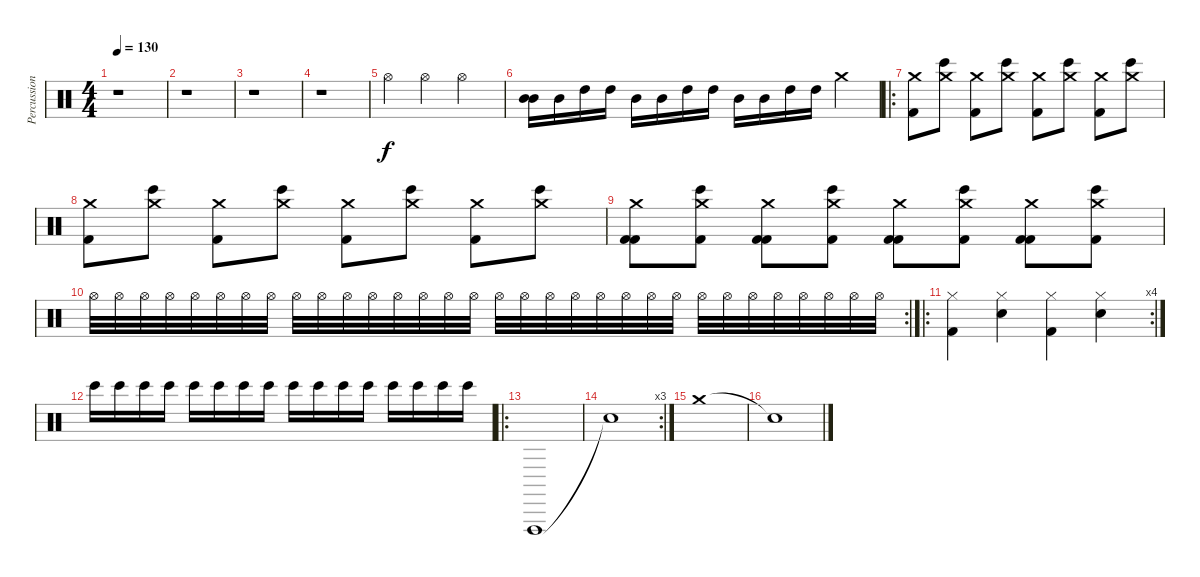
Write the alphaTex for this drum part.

\track ("Percussion" "Percussion") {instrument percussion}
\staff {score}
\articulation defaults
\ts (4 4)
\tempo 130
\clef neutral
\ks c
r.1{dy f} |
r.1 |
r.1 |
r.1 |
"Hi-Hat (open)".4 "Hi-Hat (open)".4 "Hi-Hat (open)".2 |
("Mid Tom (hit)" "Mid Tom (hit)").16 "Mid Tom (hit)".16 "High Tom (hit)".16 "High Tom (hit)".16 "Mid Tom (hit)".16 "Mid Tom (hit)".16 "High Tom (hit)".16 "High Tom (hit)".16 "Mid Tom (hit)".16 "Mid Tom (hit)".16 "High Tom (hit)".16 "High Tom (hit)".16 "Crash medium (hit)".4 |
\ro
("Crash medium (hit)" "Kick (hit) 2").8 ("Crash medium (hit)" "Bongo High (hit)").8 ("Crash medium (hit)" "Kick (hit) 2").8 ("Crash medium (hit)" "Bongo High (hit)").8 ("Crash medium (hit)" "Kick (hit) 2").8 ("Crash medium (hit)" "Bongo High (hit)").8 ("Crash medium (hit)" "Kick (hit) 2").8 ("Crash medium (hit)" "Bongo High (hit)").8 |
("Crash medium (hit)" "Kick (hit) 2").8 ("Crash medium (hit)" "Bongo High (hit)").8 ("Crash medium (hit)" "Kick (hit) 2").8 ("Crash medium (hit)" "Bongo High (hit)").8 ("Crash medium (hit)" "Kick (hit) 2").8 ("Crash medium (hit)" "Bongo High (hit)").8 ("Crash medium (hit)" "Kick (hit) 2").8 ("Crash medium (hit)" "Bongo High (hit)").8 |
("Crash medium (hit)" "Kick (hit) 2" "Kick (hit) 2").8 ("Crash medium (hit)" "Bongo High (hit)" "Kick (hit) 2").8 ("Crash medium (hit)" "Kick (hit) 2" "Kick (hit) 2").8 ("Crash medium (hit)" "Bongo High (hit)" "Kick (hit) 2").8 ("Crash medium (hit)" "Kick (hit) 2" "Kick (hit) 2").8 ("Crash medium (hit)" "Bongo High (hit)" "Kick (hit) 2").8 ("Crash medium (hit)" "Kick (hit) 2" "Kick (hit) 2").8 ("Crash medium (hit)" "Bongo High (hit)" "Kick (hit) 2").8 |
\rc 2 "Hi-Hat (open)".32 "Hi-Hat (open)".32 "Hi-Hat (open)".32 "Hi-Hat (open)".32 "Hi-Hat (open)".32 "Hi-Hat (open)".32 "Hi-Hat (open)".32 "Hi-Hat (open)".32 "Hi-Hat (open)".32 "Hi-Hat (open)".32 "Hi-Hat (open)".32 "Hi-Hat (open)".32 "Hi-Hat (open)".32 "Hi-Hat (open)".32 "Hi-Hat (open)".32 "Hi-Hat (open)".32 "Hi-Hat (open)".32 "Hi-Hat (open)".32 "Hi-Hat (open)".32 "Hi-Hat (open)".32 "Hi-Hat (open)".32 "Hi-Hat (open)".32 "Hi-Hat (open)".32 "Hi-Hat (open)".32 "Hi-Hat (open)".32 "Hi-Hat (open)".32 "Hi-Hat (open)".32 "Hi-Hat (open)".32 "Hi-Hat (open)".32 "Hi-Hat (open)".32 "Hi-Hat (open)".32 "Hi-Hat (open)".32
|
\ro
\rc 4
("Hi-Hat (closed)" "Kick (hit) 2").4 ("Hi-Hat (closed)" "Snare (hit) 2").4 ("Hi-Hat (closed)" "Kick (hit) 2").4 ("Hi-Hat (closed)" "Snare (hit) 2").4 |
"Bongo High (hit)".16 "Bongo High (hit)".16 "Bongo High (hit)".16 "Bongo High (hit)".16 "Bongo High (hit)".16 "Bongo High (hit)".16 "Bongo High (hit)".16 "Bongo High (hit)".16 "Bongo High (hit)".16 "Bongo High (hit)".16 "Bongo High (hit)".16 "Bongo High (hit)".16 "Bongo High (hit)".16 "Bongo High (hit)".16 "Bongo High (hit)".16 "Bongo High (hit)".16 |
\ro "Vibraslap (hit)".1
|
\rc 3 "Snare (hit)"{t}.1
|
"Crash medium (hit)".1 |
"Snare (hit)"{t}.1
